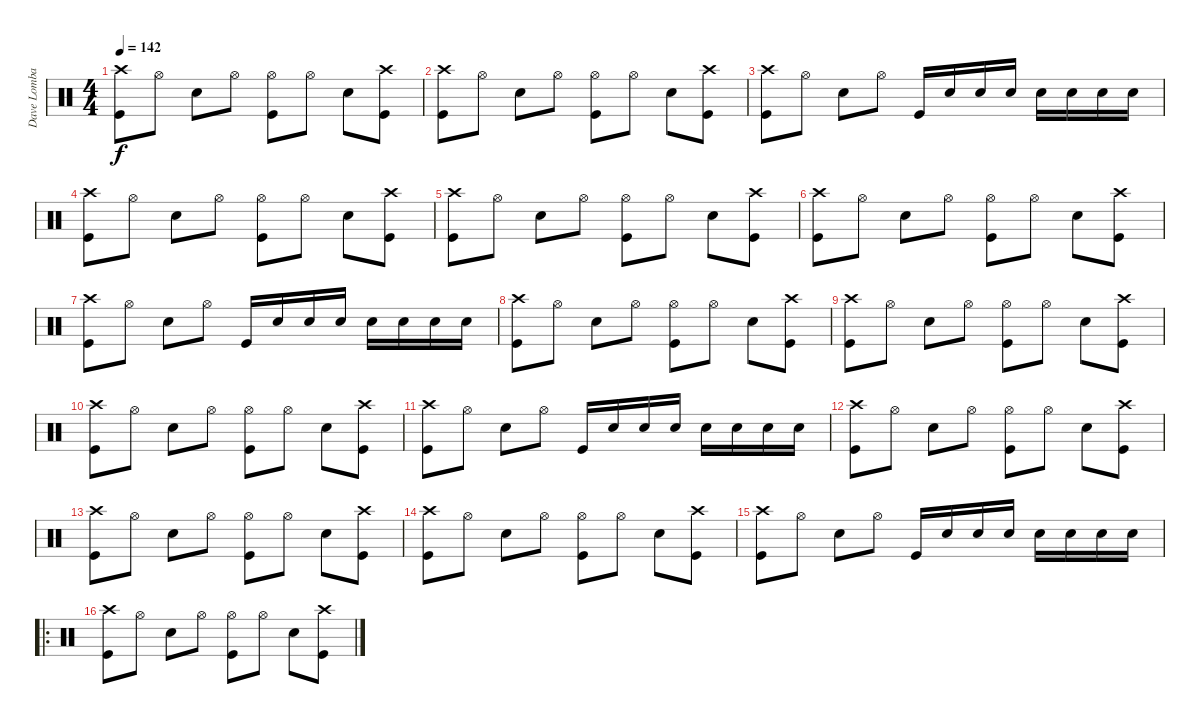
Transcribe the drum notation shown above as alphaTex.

\track ("Dave Lombardo" "Dave Lomba") {instrument percussion}
\staff {score}
\articulation defaults
\ts (4 4)
\tempo 142
\clef neutral
\ks c
("Crash high (hit)" "Kick (hit)").8{dy f} "Hi-Hat (open)".8 "Snare (hit) 2".8 "Hi-Hat (open)".8 ("Hi-Hat (open)" "Kick (hit)").8 "Hi-Hat (open)".8 "Snare (hit) 2".8 ("Crash high (hit)" "Kick (hit)").8 |
("Kick (hit)" "Crash high (hit)").8 "Hi-Hat (open)".8 "Snare (hit) 2".8 "Hi-Hat (open)".8 ("Hi-Hat (open)" "Kick (hit)").8 "Hi-Hat (open)".8 "Snare (hit) 2".8 ("Crash high (hit)" "Kick (hit)").8 |
("Crash high (hit)" "Kick (hit)").8 "Hi-Hat (open)".8 "Snare (hit) 2".8 "Hi-Hat (open)".8 "Kick (hit)".16 "Snare (hit) 2".16 "Snare (hit) 2".16 "Snare (hit) 2".16 "Snare (hit) 2".16 "Snare (hit) 2".16 "Snare (hit) 2".16 "Snare (hit) 2".16 |
("Kick (hit)" "Crash high (hit)").8 "Hi-Hat (open)".8 "Snare (hit) 2".8 "Hi-Hat (open)".8 ("Hi-Hat (open)" "Kick (hit)").8 "Hi-Hat (open)".8 "Snare (hit) 2".8 ("Crash high (hit)" "Kick (hit)").8 |
("Crash high (hit)" "Kick (hit)").8 "Hi-Hat (open)".8 "Snare (hit) 2".8 "Hi-Hat (open)".8 ("Hi-Hat (open)" "Kick (hit)").8 "Hi-Hat (open)".8 "Snare (hit) 2".8 ("Crash high (hit)" "Kick (hit)").8 |
("Kick (hit)" "Crash high (hit)").8 "Hi-Hat (open)".8 "Snare (hit) 2".8 "Hi-Hat (open)".8 ("Hi-Hat (open)" "Kick (hit)").8 "Hi-Hat (open)".8 "Snare (hit) 2".8 ("Crash high (hit)" "Kick (hit)").8 |
("Crash high (hit)" "Kick (hit)").8 "Hi-Hat (open)".8 "Snare (hit) 2".8 "Hi-Hat (open)".8 "Kick (hit)".16 "Snare (hit) 2".16 "Snare (hit) 2".16 "Snare (hit) 2".16 "Snare (hit) 2".16 "Snare (hit) 2".16 "Snare (hit) 2".16 "Snare (hit) 2".16 |
("Kick (hit)" "Crash high (hit)").8 "Hi-Hat (open)".8 "Snare (hit) 2".8 "Hi-Hat (open)".8 ("Hi-Hat (open)" "Kick (hit)").8 "Hi-Hat (open)".8 "Snare (hit) 2".8 ("Crash high (hit)" "Kick (hit)").8 |
("Crash high (hit)" "Kick (hit)").8 "Hi-Hat (open)".8 "Snare (hit) 2".8 "Hi-Hat (open)".8 ("Hi-Hat (open)" "Kick (hit)").8 "Hi-Hat (open)".8 "Snare (hit) 2".8 ("Crash high (hit)" "Kick (hit)").8 |
("Kick (hit)" "Crash high (hit)").8 "Hi-Hat (open)".8 "Snare (hit) 2".8 "Hi-Hat (open)".8 ("Hi-Hat (open)" "Kick (hit)").8 "Hi-Hat (open)".8 "Snare (hit) 2".8 ("Crash high (hit)" "Kick (hit)").8 |
("Crash high (hit)" "Kick (hit)").8 "Hi-Hat (open)".8 "Snare (hit) 2".8 "Hi-Hat (open)".8 "Kick (hit)".16 "Snare (hit) 2".16 "Snare (hit) 2".16 "Snare (hit) 2".16 "Snare (hit) 2".16 "Snare (hit) 2".16 "Snare (hit) 2".16 "Snare (hit) 2".16 |
("Kick (hit)" "Crash high (hit)").8 "Hi-Hat (open)".8 "Snare (hit) 2".8 "Hi-Hat (open)".8 ("Hi-Hat (open)" "Kick (hit)").8 "Hi-Hat (open)".8 "Snare (hit) 2".8 ("Crash high (hit)" "Kick (hit)").8 |
("Crash high (hit)" "Kick (hit)").8 "Hi-Hat (open)".8 "Snare (hit) 2".8 "Hi-Hat (open)".8 ("Hi-Hat (open)" "Kick (hit)").8 "Hi-Hat (open)".8 "Snare (hit) 2".8 ("Crash high (hit)" "Kick (hit)").8 |
("Kick (hit)" "Crash high (hit)").8 "Hi-Hat (open)".8 "Snare (hit) 2".8 "Hi-Hat (open)".8 ("Hi-Hat (open)" "Kick (hit)").8 "Hi-Hat (open)".8 "Snare (hit) 2".8 ("Crash high (hit)" "Kick (hit)").8 |
("Crash high (hit)" "Kick (hit)").8 "Hi-Hat (open)".8 "Snare (hit) 2".8 "Hi-Hat (open)".8 "Kick (hit)".16 "Snare (hit) 2".16 "Snare (hit) 2".16 "Snare (hit) 2".16 "Snare (hit) 2".16 "Snare (hit) 2".16 "Snare (hit) 2".16 "Snare (hit) 2".16 |
\ro
("Kick (hit)" "Crash high (hit)").8 "Hi-Hat (open)".8 "Snare (hit) 2".8 "Hi-Hat (open)".8 ("Hi-Hat (open)" "Kick (hit)").8 "Hi-Hat (open)".8 "Snare (hit) 2".8 ("Crash high (hit)" "Kick (hit)").8
